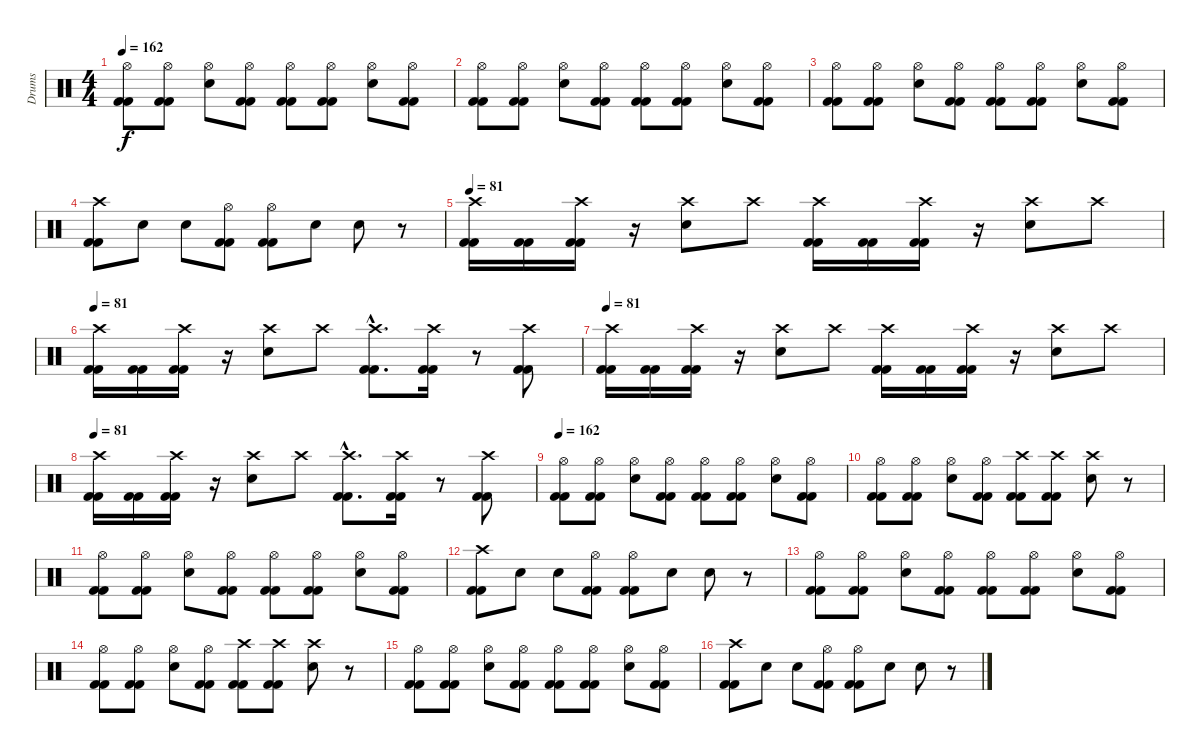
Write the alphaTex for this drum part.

\track ("Drums" "Drums") {instrument percussion}
\staff {score}
\articulation defaults
\ts (4 4)
\tempo 162
\clef neutral
\ks c
("Hi-Hat (open)" "Kick (hit) 2" "Kick (hit) 2").8{dy f} ("Hi-Hat (open)" "Kick (hit) 2" "Kick (hit) 2").8 ("Hi-Hat (open)" "Electric Snare (hit)").8 ("Hi-Hat (open)" "Kick (hit) 2" "Kick (hit) 2").8 ("Hi-Hat (open)" "Kick (hit) 2" "Kick (hit) 2").8 ("Hi-Hat (open)" "Kick (hit) 2" "Kick (hit) 2").8 ("Hi-Hat (open)" "Electric Snare (hit)").8 ("Hi-Hat (open)" "Kick (hit) 2" "Kick (hit) 2").8 |
("Hi-Hat (open)" "Kick (hit) 2" "Kick (hit) 2").8 ("Hi-Hat (open)" "Kick (hit) 2" "Kick (hit) 2").8 ("Hi-Hat (open)" "Electric Snare (hit)").8 ("Hi-Hat (open)" "Kick (hit) 2" "Kick (hit) 2").8 ("Hi-Hat (open)" "Kick (hit) 2" "Kick (hit) 2").8 ("Hi-Hat (open)" "Kick (hit) 2" "Kick (hit) 2").8 ("Hi-Hat (open)" "Electric Snare (hit)").8 ("Hi-Hat (open)" "Kick (hit) 2" "Kick (hit) 2").8 |
("Hi-Hat (open)" "Kick (hit) 2" "Kick (hit) 2").8 ("Hi-Hat (open)" "Kick (hit) 2" "Kick (hit) 2").8 ("Hi-Hat (open)" "Electric Snare (hit)").8 ("Hi-Hat (open)" "Kick (hit) 2" "Kick (hit) 2").8 ("Hi-Hat (open)" "Kick (hit) 2" "Kick (hit) 2").8 ("Hi-Hat (open)" "Kick (hit) 2" "Kick (hit) 2").8 ("Hi-Hat (open)" "Electric Snare (hit)").8 ("Hi-Hat (open)" "Kick (hit) 2" "Kick (hit) 2").8 |
("Crash high (hit)" "Kick (hit) 2" "Kick (hit) 2").8 "Electric Snare (hit)".8 "Electric Snare (hit)".8 ("Hi-Hat (open)" "Kick (hit) 2" "Kick (hit) 2").8 ("Hi-Hat (open)" "Kick (hit) 2" "Kick (hit) 2").8 "Electric Snare (hit)".8 "Electric Snare (hit)".8 r.8 |
\tempo 81
("Crash high (hit)" "Kick (hit) 2" "Kick (hit) 2").16 ("Kick (hit) 2" "Kick (hit) 2").16 ("Crash high (hit)" "Kick (hit) 2" "Kick (hit) 2").16 r.16 ("Crash high (hit)" "Electric Snare (hit)").8 "Crash high (hit)".8 ("Crash high (hit)" "Kick (hit) 2" "Kick (hit) 2").16 ("Kick (hit) 2" "Kick (hit) 2").16 ("Crash high (hit)" "Kick (hit) 2" "Kick (hit) 2").16 r.16 ("Crash high (hit)" "Electric Snare (hit)").8 "Crash high (hit)".8 |
\tempo 81
("Crash high (hit)" "Kick (hit) 2" "Kick (hit) 2").16 ("Kick (hit) 2" "Kick (hit) 2").16 ("Crash high (hit)" "Kick (hit) 2" "Kick (hit) 2").16 r.16 ("Crash high (hit)" "Electric Snare (hit)").8 "Crash high (hit)".8 ("Crash high (hit)"{hac} "Kick (hit) 2"{hac} "Kick (hit) 2"{hac}).8{d} ("Crash high (hit)" "Kick (hit) 2" "Kick (hit) 2").16 r.8 ("Crash high (hit)" "Kick (hit) 2" "Kick (hit) 2").8 |
\tempo 81
("Crash high (hit)" "Kick (hit) 2" "Kick (hit) 2").16 ("Kick (hit) 2" "Kick (hit) 2").16 ("Crash high (hit)" "Kick (hit) 2" "Kick (hit) 2").16 r.16 ("Crash high (hit)" "Electric Snare (hit)").8 "Crash high (hit)".8 ("Crash high (hit)" "Kick (hit) 2" "Kick (hit) 2").16 ("Kick (hit) 2" "Kick (hit) 2").16 ("Crash high (hit)" "Kick (hit) 2" "Kick (hit) 2").16 r.16 ("Crash high (hit)" "Electric Snare (hit)").8 "Crash high (hit)".8 |
\tempo 81
("Crash high (hit)" "Kick (hit) 2" "Kick (hit) 2").16 ("Kick (hit) 2" "Kick (hit) 2").16 ("Crash high (hit)" "Kick (hit) 2" "Kick (hit) 2").16 r.16 ("Crash high (hit)" "Electric Snare (hit)").8 "Crash high (hit)".8 ("Crash high (hit)"{hac} "Kick (hit) 2"{hac} "Kick (hit) 2"{hac}).8{d} ("Crash high (hit)" "Kick (hit) 2" "Kick (hit) 2").16 r.8 ("Crash high (hit)" "Kick (hit) 2" "Kick (hit) 2").8 |
\tempo 162
("Hi-Hat (open)" "Kick (hit) 2" "Kick (hit) 2").8 ("Hi-Hat (open)" "Kick (hit) 2" "Kick (hit) 2").8 ("Hi-Hat (open)" "Electric Snare (hit)").8 ("Hi-Hat (open)" "Kick (hit) 2" "Kick (hit) 2").8 ("Hi-Hat (open)" "Kick (hit) 2" "Kick (hit) 2").8 ("Hi-Hat (open)" "Kick (hit) 2" "Kick (hit) 2").8 ("Hi-Hat (open)" "Electric Snare (hit)").8 ("Hi-Hat (open)" "Kick (hit) 2" "Kick (hit) 2").8 |
("Hi-Hat (open)" "Kick (hit) 2" "Kick (hit) 2").8 ("Hi-Hat (open)" "Kick (hit) 2" "Kick (hit) 2").8 ("Hi-Hat (open)" "Electric Snare (hit)").8 ("Hi-Hat (open)" "Kick (hit) 2" "Kick (hit) 2").8 ("Crash high (hit)" "Kick (hit) 2" "Kick (hit) 2").8 ("Crash high (hit)" "Kick (hit) 2" "Kick (hit) 2").8 ("Crash high (hit)" "Electric Snare (hit)").8 r.8 |
("Hi-Hat (open)" "Kick (hit) 2" "Kick (hit) 2").8 ("Hi-Hat (open)" "Kick (hit) 2" "Kick (hit) 2").8 ("Hi-Hat (open)" "Electric Snare (hit)").8 ("Hi-Hat (open)" "Kick (hit) 2" "Kick (hit) 2").8 ("Hi-Hat (open)" "Kick (hit) 2" "Kick (hit) 2").8 ("Hi-Hat (open)" "Kick (hit) 2" "Kick (hit) 2").8 ("Hi-Hat (open)" "Electric Snare (hit)").8 ("Hi-Hat (open)" "Kick (hit) 2" "Kick (hit) 2").8 |
("Crash high (hit)" "Kick (hit) 2" "Kick (hit) 2").8 "Electric Snare (hit)".8 "Electric Snare (hit)".8 ("Hi-Hat (open)" "Kick (hit) 2" "Kick (hit) 2").8 ("Hi-Hat (open)" "Kick (hit) 2" "Kick (hit) 2").8 "Electric Snare (hit)".8 "Electric Snare (hit)".8 r.8 |
("Hi-Hat (open)" "Kick (hit) 2" "Kick (hit) 2").8 ("Hi-Hat (open)" "Kick (hit) 2" "Kick (hit) 2").8 ("Hi-Hat (open)" "Electric Snare (hit)").8 ("Hi-Hat (open)" "Kick (hit) 2" "Kick (hit) 2").8 ("Hi-Hat (open)" "Kick (hit) 2" "Kick (hit) 2").8 ("Hi-Hat (open)" "Kick (hit) 2" "Kick (hit) 2").8 ("Hi-Hat (open)" "Electric Snare (hit)").8 ("Hi-Hat (open)" "Kick (hit) 2" "Kick (hit) 2").8 |
("Hi-Hat (open)" "Kick (hit) 2" "Kick (hit) 2").8 ("Hi-Hat (open)" "Kick (hit) 2" "Kick (hit) 2").8 ("Hi-Hat (open)" "Electric Snare (hit)").8 ("Hi-Hat (open)" "Kick (hit) 2" "Kick (hit) 2").8 ("Crash high (hit)" "Kick (hit) 2" "Kick (hit) 2").8 ("Crash high (hit)" "Kick (hit) 2" "Kick (hit) 2").8 ("Crash high (hit)" "Electric Snare (hit)").8 r.8 |
("Hi-Hat (open)" "Kick (hit) 2" "Kick (hit) 2").8 ("Hi-Hat (open)" "Kick (hit) 2" "Kick (hit) 2").8 ("Hi-Hat (open)" "Electric Snare (hit)").8 ("Hi-Hat (open)" "Kick (hit) 2" "Kick (hit) 2").8 ("Hi-Hat (open)" "Kick (hit) 2" "Kick (hit) 2").8 ("Hi-Hat (open)" "Kick (hit) 2" "Kick (hit) 2").8 ("Hi-Hat (open)" "Electric Snare (hit)").8 ("Hi-Hat (open)" "Kick (hit) 2" "Kick (hit) 2").8 |
("Crash high (hit)" "Kick (hit) 2" "Kick (hit) 2").8 "Electric Snare (hit)".8 "Electric Snare (hit)".8 ("Hi-Hat (open)" "Kick (hit) 2" "Kick (hit) 2").8 ("Hi-Hat (open)" "Kick (hit) 2" "Kick (hit) 2").8 "Electric Snare (hit)".8 "Electric Snare (hit)".8 r.8
